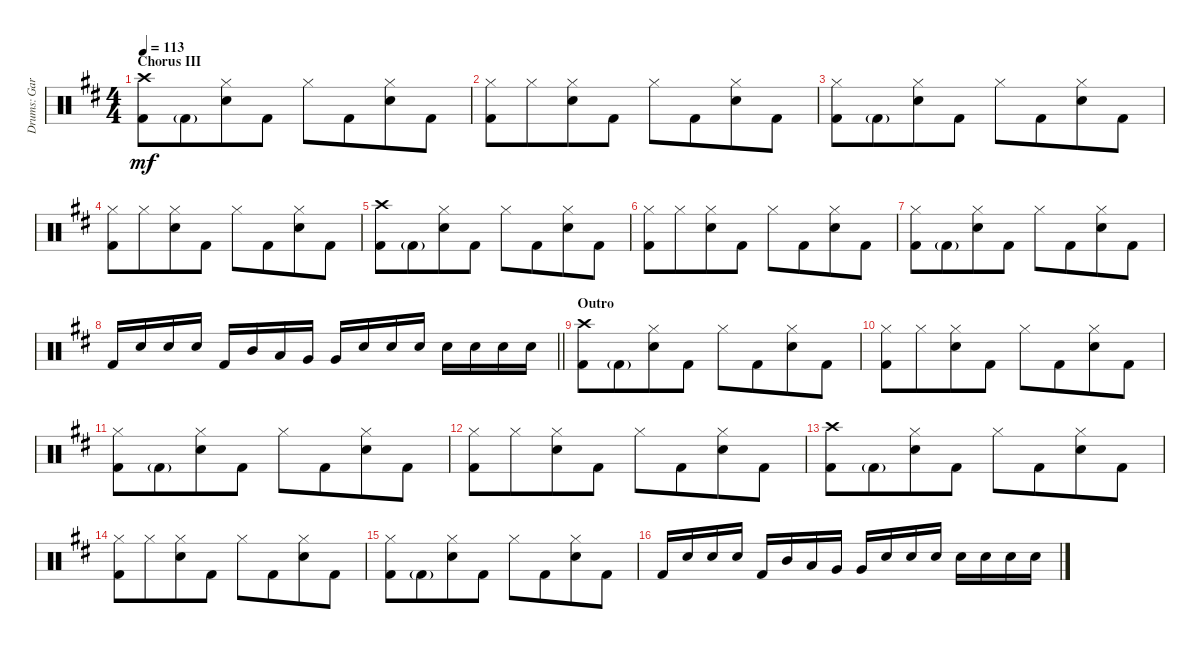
\track ("Drums: Gary" "Drums: Gar") {instrument percussion}
\staff {score}
\articulation defaults
\ts (4 4)
\section ("" "Chorus III")
\tempo 113
\clef neutral
\ks d
("Crash high (hit)" "Kick (hit) 2").8{dy mf} "Kick (hit) 2"{g}.8{beam merge} ("Hi-Hat (closed)" "Snare (hit) 2").8 "Kick (hit) 2".8 "Hi-Hat (closed)".8 "Kick (hit) 2".8{beam merge} ("Hi-Hat (closed)" "Snare (hit) 2").8 "Kick (hit) 2".8 |
("Hi-Hat (closed)" "Kick (hit) 2").8 "Hi-Hat (closed)".8{beam merge} ("Hi-Hat (closed)" "Snare (hit) 2").8 "Kick (hit) 2".8 "Hi-Hat (closed)".8 "Kick (hit) 2".8{beam merge} ("Hi-Hat (closed)" "Snare (hit) 2").8 "Kick (hit) 2".8 |
("Hi-Hat (closed)" "Kick (hit) 2").8 "Kick (hit) 2"{g}.8{beam merge} ("Hi-Hat (closed)" "Snare (hit) 2").8 "Kick (hit) 2".8 "Hi-Hat (closed)".8 "Kick (hit) 2".8{beam merge} ("Hi-Hat (closed)" "Snare (hit) 2").8 "Kick (hit) 2".8 |
("Hi-Hat (closed)" "Kick (hit) 2").8 "Hi-Hat (closed)".8{beam merge} ("Hi-Hat (closed)" "Snare (hit) 2").8 "Kick (hit) 2".8 "Hi-Hat (closed)".8 "Kick (hit) 2".8{beam merge} ("Hi-Hat (closed)" "Snare (hit) 2").8 "Kick (hit) 2".8 |
("Crash high (hit)" "Kick (hit) 2").8 "Kick (hit) 2"{g}.8{beam merge} ("Hi-Hat (closed)" "Snare (hit) 2").8 "Kick (hit) 2".8 "Hi-Hat (closed)".8 "Kick (hit) 2".8{beam merge} ("Hi-Hat (closed)" "Snare (hit) 2").8 "Kick (hit) 2".8 |
("Hi-Hat (closed)" "Kick (hit) 2").8 "Hi-Hat (closed)".8{beam merge} ("Hi-Hat (closed)" "Snare (hit) 2").8 "Kick (hit) 2".8 "Hi-Hat (closed)".8 "Kick (hit) 2".8{beam merge} ("Hi-Hat (closed)" "Snare (hit) 2").8 "Kick (hit) 2".8 |
("Hi-Hat (closed)" "Kick (hit) 2").8 "Kick (hit) 2"{g}.8{beam merge} ("Hi-Hat (closed)" "Snare (hit) 2").8 "Kick (hit) 2".8 "Hi-Hat (closed)".8 "Kick (hit) 2".8{beam merge} ("Hi-Hat (closed)" "Snare (hit) 2").8 "Kick (hit) 2".8 |
\barLineRight lightlight "Kick (hit) 2".16 "Snare (hit) 2".16 "Snare (hit) 2".16 "Snare (hit) 2".16 "Kick (hit) 2".16 "Mid Tom (hit)".16 "Low Tom (hit)".16 "Very Low Tom (hit)".16 "Very Low Tom (hit)".16 "Snare (hit) 2".16 "Snare (hit) 2".16 "Snare (hit) 2".16 "Snare (hit) 2".16 "Snare (hit) 2".16 "Snare (hit) 2".16 "Snare (hit) 2".16
|
\section ("" "Outro")
("Crash high (hit)" "Kick (hit) 2").8 "Kick (hit) 2"{g}.8{beam merge} ("Hi-Hat (closed)" "Snare (hit) 2").8 "Kick (hit) 2".8 "Hi-Hat (closed)".8 "Kick (hit) 2".8{beam merge} ("Hi-Hat (closed)" "Snare (hit) 2").8 "Kick (hit) 2".8 |
("Hi-Hat (closed)" "Kick (hit) 2").8 "Hi-Hat (closed)".8{beam merge} ("Hi-Hat (closed)" "Snare (hit) 2").8 "Kick (hit) 2".8 "Hi-Hat (closed)".8 "Kick (hit) 2".8{beam merge} ("Hi-Hat (closed)" "Snare (hit) 2").8 "Kick (hit) 2".8 |
("Hi-Hat (closed)" "Kick (hit) 2").8 "Kick (hit) 2"{g}.8{beam merge} ("Hi-Hat (closed)" "Snare (hit) 2").8 "Kick (hit) 2".8 "Hi-Hat (closed)".8 "Kick (hit) 2".8{beam merge} ("Hi-Hat (closed)" "Snare (hit) 2").8 "Kick (hit) 2".8 |
("Hi-Hat (closed)" "Kick (hit) 2").8 "Hi-Hat (closed)".8{beam merge} ("Hi-Hat (closed)" "Snare (hit) 2").8 "Kick (hit) 2".8 "Hi-Hat (closed)".8 "Kick (hit) 2".8{beam merge} ("Hi-Hat (closed)" "Snare (hit) 2").8 "Kick (hit) 2".8 |
("Crash high (hit)" "Kick (hit) 2").8 "Kick (hit) 2"{g}.8{beam merge} ("Hi-Hat (closed)" "Snare (hit) 2").8 "Kick (hit) 2".8 "Hi-Hat (closed)".8 "Kick (hit) 2".8{beam merge} ("Hi-Hat (closed)" "Snare (hit) 2").8 "Kick (hit) 2".8 |
("Hi-Hat (closed)" "Kick (hit) 2").8 "Hi-Hat (closed)".8{beam merge} ("Hi-Hat (closed)" "Snare (hit) 2").8 "Kick (hit) 2".8 "Hi-Hat (closed)".8 "Kick (hit) 2".8{beam merge} ("Hi-Hat (closed)" "Snare (hit) 2").8 "Kick (hit) 2".8 |
("Hi-Hat (closed)" "Kick (hit) 2").8 "Kick (hit) 2"{g}.8{beam merge} ("Hi-Hat (closed)" "Snare (hit) 2").8 "Kick (hit) 2".8 "Hi-Hat (closed)".8 "Kick (hit) 2".8{beam merge} ("Hi-Hat (closed)" "Snare (hit) 2").8 "Kick (hit) 2".8 |
"Kick (hit) 2".16 "Snare (hit) 2".16 "Snare (hit) 2".16 "Snare (hit) 2".16 "Kick (hit) 2".16 "Mid Tom (hit)".16 "Low Tom (hit)".16 "Very Low Tom (hit)".16 "Very Low Tom (hit)".16 "Snare (hit) 2".16 "Snare (hit) 2".16 "Snare (hit) 2".16 "Snare (hit) 2".16 "Snare (hit) 2".16 "Snare (hit) 2".16 "Snare (hit) 2".16
